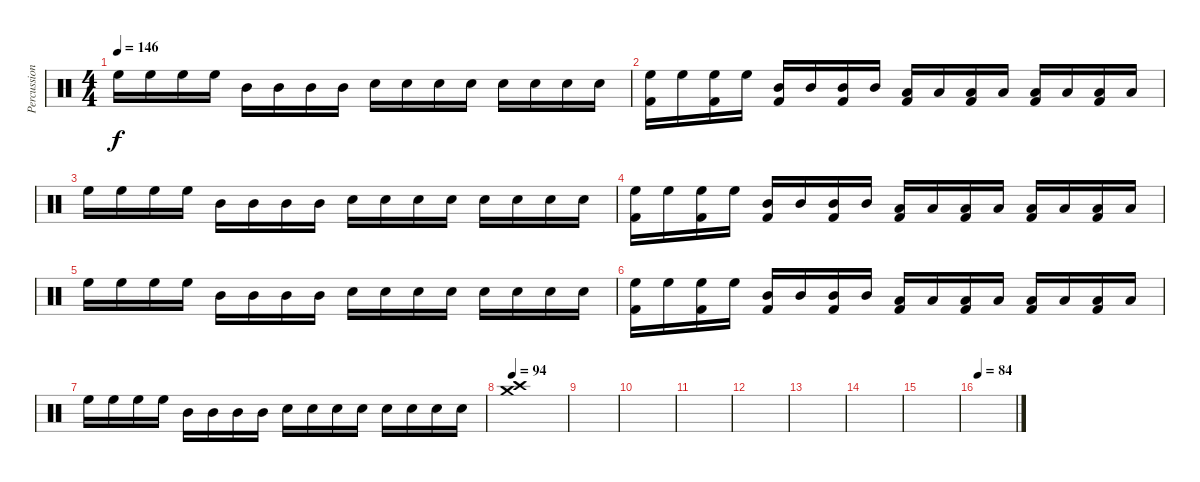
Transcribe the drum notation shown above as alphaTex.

\track ("Percussion" "Percussion") {instrument percussion}
\staff {score}
\articulation defaults
\ts (4 4)
\tempo 146
\clef neutral
\ks c "High Floor Tom (hit)".16{dy f} "High Floor Tom (hit)".16 "High Floor Tom (hit)".16 "High Floor Tom (hit)".16 "Mid Tom (hit)".16 "Mid Tom (hit)".16 "Mid Tom (hit)".16 "Mid Tom (hit)".16 "Snare (hit) 2".16 "Snare (hit) 2".16 "Snare (hit) 2".16 "Snare (hit) 2".16 "Snare (hit) 2".16 "Snare (hit) 2".16 "Snare (hit) 2".16 "Snare (hit) 2".16
|
("High Floor Tom (hit)" "Kick (hit) 2").16 "High Floor Tom (hit)".16 ("High Floor Tom (hit)" "Kick (hit) 2").16 "High Floor Tom (hit)".16 ("Mid Tom (hit)" "Kick (hit) 2").16 "Mid Tom (hit)".16 ("Mid Tom (hit)" "Kick (hit) 2").16 "Mid Tom (hit)".16 ("Low Tom (hit)" "Kick (hit) 2").16 "Low Tom (hit)".16 ("Low Tom (hit)" "Kick (hit) 2").16 "Low Tom (hit)".16 ("Low Floor Tom (hit)" "Kick (hit) 2").16 "Low Floor Tom (hit)".16 ("Low Floor Tom (hit)" "Kick (hit) 2").16 "Low Floor Tom (hit)".16 |
"High Floor Tom (hit)".16 "High Floor Tom (hit)".16 "High Floor Tom (hit)".16 "High Floor Tom (hit)".16 "Mid Tom (hit)".16 "Mid Tom (hit)".16 "Mid Tom (hit)".16 "Mid Tom (hit)".16 "Snare (hit) 2".16 "Snare (hit) 2".16 "Snare (hit) 2".16 "Snare (hit) 2".16 "Snare (hit) 2".16 "Snare (hit) 2".16 "Snare (hit) 2".16 "Snare (hit) 2".16 |
("High Floor Tom (hit)" "Kick (hit) 2").16 "High Floor Tom (hit)".16 ("High Floor Tom (hit)" "Kick (hit) 2").16 "High Floor Tom (hit)".16 ("Mid Tom (hit)" "Kick (hit) 2").16 "Mid Tom (hit)".16 ("Mid Tom (hit)" "Kick (hit) 2").16 "Mid Tom (hit)".16 ("Low Tom (hit)" "Kick (hit) 2").16 "Low Tom (hit)".16 ("Low Tom (hit)" "Kick (hit) 2").16 "Low Tom (hit)".16 ("Low Floor Tom (hit)" "Kick (hit) 2").16 "Low Floor Tom (hit)".16 ("Low Floor Tom (hit)" "Kick (hit) 2").16 "Low Floor Tom (hit)".16 |
"High Floor Tom (hit)".16 "High Floor Tom (hit)".16 "High Floor Tom (hit)".16 "High Floor Tom (hit)".16 "Mid Tom (hit)".16 "Mid Tom (hit)".16 "Mid Tom (hit)".16 "Mid Tom (hit)".16 "Snare (hit) 2".16 "Snare (hit) 2".16 "Snare (hit) 2".16 "Snare (hit) 2".16 "Snare (hit) 2".16 "Snare (hit) 2".16 "Snare (hit) 2".16 "Snare (hit) 2".16 |
("High Floor Tom (hit)" "Kick (hit) 2").16 "High Floor Tom (hit)".16 ("High Floor Tom (hit)" "Kick (hit) 2").16 "High Floor Tom (hit)".16 ("Mid Tom (hit)" "Kick (hit) 2").16 "Mid Tom (hit)".16 ("Mid Tom (hit)" "Kick (hit) 2").16 "Mid Tom (hit)".16 ("Low Tom (hit)" "Kick (hit) 2").16 "Low Tom (hit)".16 ("Low Tom (hit)" "Kick (hit) 2").16 "Low Tom (hit)".16 ("Low Floor Tom (hit)" "Kick (hit) 2").16 "Low Floor Tom (hit)".16 ("Low Floor Tom (hit)" "Kick (hit) 2").16 "Low Floor Tom (hit)".16 |
"High Floor Tom (hit)".16 "High Floor Tom (hit)".16 "High Floor Tom (hit)".16 "High Floor Tom (hit)".16 "Mid Tom (hit)".16 "Mid Tom (hit)".16 "Mid Tom (hit)".16 "Mid Tom (hit)".16 "Snare (hit) 2".16 "Snare (hit) 2".16 "Snare (hit) 2".16 "Snare (hit) 2".16 "Snare (hit) 2".16 "Snare (hit) 2".16 "Snare (hit) 2".16 "Snare (hit) 2".16 |
\tempo 94
("Crash high (hit)" "Crash medium (hit)").1 |
|
|
|
|
|
|
|
\tempo 84
